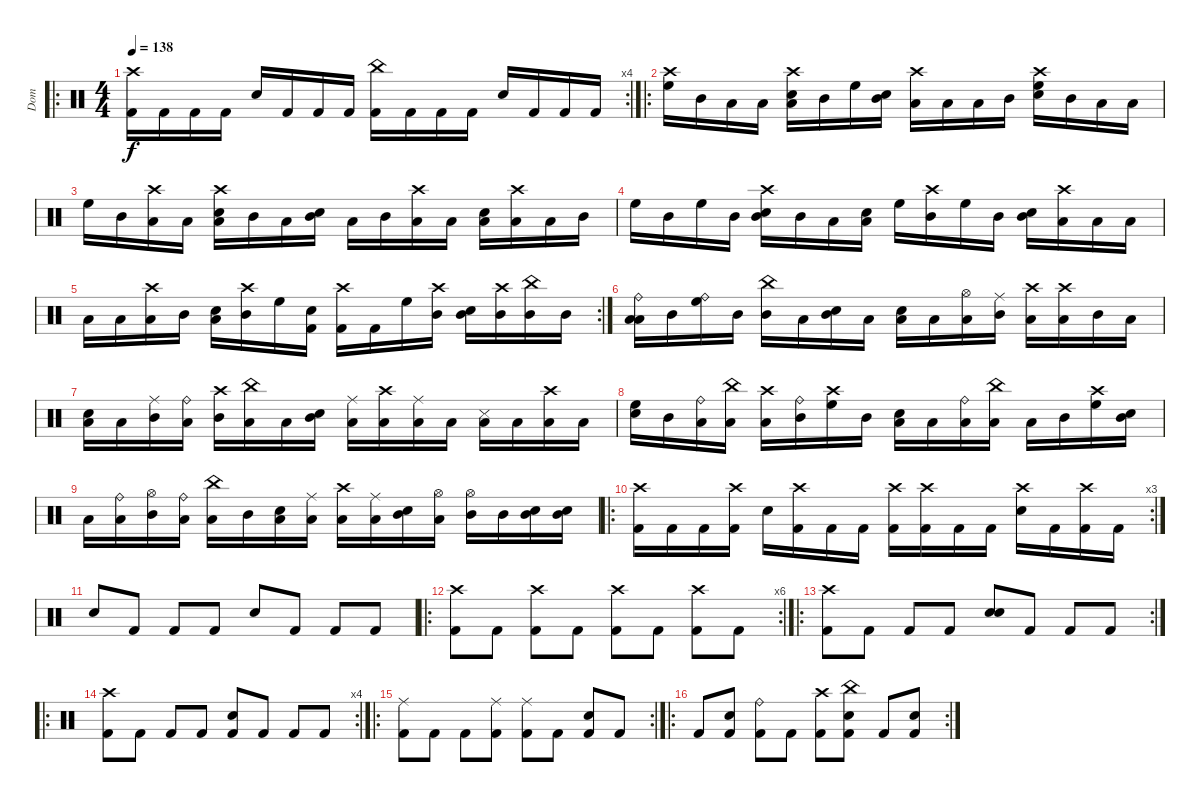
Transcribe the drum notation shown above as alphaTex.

\track ("Dom" "Dom") {instrument percussion}
\staff {score}
\articulation defaults
\ro
\rc 4
\ts (4 4)
\tempo 138
\clef neutral
\ks c
("Crash high (hit)" "Kick (hit) 2").16{dy f} "Kick (hit) 2".16 "Kick (hit) 2".16 "Kick (hit) 2".16 "Snare (hit) 2".16 "Kick (hit) 2".16 "Kick (hit) 2".16 "Kick (hit) 2".16 ("China (hit)" "Kick (hit) 2").16 "Kick (hit) 2".16 "Kick (hit) 2".16 "Kick (hit) 2".16 "Snare (hit) 2".16 "Kick (hit) 2".16 "Kick (hit) 2".16 "Kick (hit) 2".16 |
\ro
("Crash high (hit)" "High Floor Tom (hit)").16 "Mid Tom (hit)".16 "Low Tom (hit)".16 "Low Floor Tom (hit)".16 ("Crash high (hit)" "Snare (hit) 2" "Low Tom (hit)").16 "Mid Tom (hit)".16 "High Floor Tom (hit)".16 ("Snare (hit) 2" "Mid Tom (hit)").16 ("Crash high (hit)" "Low Tom (hit)").16 "Low Floor Tom (hit)".16 "Low Tom (hit)".16 "Mid Tom (hit)".16 ("Crash high (hit)" "Snare (hit) 2" "High Floor Tom (hit)").16 "Mid Tom (hit)".16 "Low Tom (hit)".16 "Low Floor Tom (hit)".16 |
"High Floor Tom (hit)".16 "Mid Tom (hit)".16 ("Crash high (hit)" "Low Tom (hit)").16 "Low Floor Tom (hit)".16 ("Crash high (hit)" "Snare (hit) 2" "Low Tom (hit)").16 "Mid Tom (hit)".16 "Low Tom (hit)".16 ("Snare (hit) 2" "Mid Tom (hit)").16 "Low Tom (hit)".16 "Mid Tom (hit)".16 ("Crash high (hit)" "Low Tom (hit)").16 "Low Floor Tom (hit)".16 ("Snare (hit) 2" "Low Tom (hit)").16 ("Crash high (hit)" "Low Floor Tom (hit)").16 "Low Tom (hit)".16 "Mid Tom (hit)".16 |
"High Floor Tom (hit)".16 "Mid Tom (hit)".16 "High Floor Tom (hit)".16 "Mid Tom (hit)".16 ("Crash high (hit)" "Snare (hit) 2" "Mid Tom (hit)").16 "Mid Tom (hit)".16 "Low Tom (hit)".16 ("Snare (hit) 2" "Low Tom (hit)").16 "High Floor Tom (hit)".16 ("Crash high (hit)" "Mid Tom (hit)").16 "High Floor Tom (hit)".16 "Mid Tom (hit)".16 ("Snare (hit) 2" "Mid Tom (hit)").16 ("Crash high (hit)" "Low Tom (hit)").16 "Low Tom (hit)".16 "Low Tom (hit)".16 |
\rc 2 "Low Tom (hit)".16 "Low Tom (hit)".16
("Crash high (hit)" "Low Tom (hit)").16 "Mid Tom (hit)".16 ("Snare (hit) 2" "Low Tom (hit)").16 ("Crash high (hit)" "Mid Tom (hit)").16 "High Floor Tom (hit)".16 ("Snare (hit) 2" "Kick (hit) 2").16 ("Crash high (hit)" "Kick (hit) 2").16 "Kick (hit) 2".16 "High Floor Tom (hit)".16 ("Crash high (hit)" "Mid Tom (hit)").16 ("Snare (hit) 2" "Mid Tom (hit)").16 ("Crash high (hit)" "Mid Tom (hit)").16 ("China (hit)" "Mid Tom (hit)").16 "Mid Tom (hit)".16 |
("Ride (bell)" "Low Tom (hit)" "Low Floor Tom (hit)").16 "Mid Tom (hit)".16 ("Ride (bell)" "High Floor Tom (hit)").16 "Mid Tom (hit)".16 ("China (hit)" "Mid Tom (hit)").16 "Low Tom (hit)".16 ("Snare (hit) 2" "Mid Tom (hit)").16 "Low Tom (hit)".16 ("Snare (hit) 2" "Low Tom (hit)").16 "Low Tom (hit)".16 ("Hi-Hat (open)" "Low Tom (hit)").16 ("Ride (middle)" "Mid Tom (hit)").16 ("Crash high (hit)" "Low Tom (hit)").16 ("Crash high (hit)" "Low Tom (hit)").16 "Mid Tom (hit)".16 "Low Tom (hit)".16 |
("Snare (hit) 2" "Low Tom (hit)").16 "Low Tom (hit)".16 ("Ride (middle)" "Mid Tom (hit)").16 ("Ride (bell)" "Low Floor Tom (hit)").16 ("Crash high (hit)" "Mid Tom (hit)").16 ("China (hit)" "Low Tom (hit)").16 "Low Tom (hit)".16 ("Snare (hit) 2" "Mid Tom (hit)").16 ("Ride (middle)" "Low Floor Tom (hit)").16 ("Crash high (hit)" "Low Tom (hit)").16 ("Ride (middle)" "Low Floor Tom (hit)").16 "Low Tom (hit)".16 ("Snare (side stick) 3" "Low Tom (hit)").16 "Low Floor Tom (hit)".16 ("Crash high (hit)" "Low Tom (hit)").16 "Low Floor Tom (hit)".16 |
("Snare (hit) 2" "High Floor Tom (hit)").16 "Mid Tom (hit)".16 ("Ride (bell)" "Low Tom (hit)").16 ("China (hit)" "Low Floor Tom (hit)").16 ("Crash high (hit)" "Low Tom (hit)").16 ("Ride (bell)" "Mid Tom (hit)").16 ("Crash high (hit)" "High Floor Tom (hit)").16 "Mid Tom (hit)".16 ("Snare (hit) 2" "Low Tom (hit)").16 "Low Floor Tom (hit)".16 ("Ride (bell)" "Low Tom (hit)").16 ("China (hit)" "Low Floor Tom (hit)").16 "Low Tom (hit)".16 "Mid Tom (hit)".16 ("Crash high (hit)" "High Floor Tom (hit)").16 ("Snare (hit) 2" "Mid Tom (hit)").16 |
"Low Tom (hit)".16 ("Ride (bell)" "Low Tom (hit)").16 ("Hi-Hat (open)" "Mid Tom (hit)").16 ("Ride (bell)" "Low Tom (hit)").16 ("China (hit)" "Low Tom (hit)").16 "Mid Tom (hit)".16 ("Snare (hit) 2" "Low Tom (hit)").16 ("Ride (middle)" "Low Tom (hit)").16 ("Crash high (hit)" "Low Tom (hit)").16 ("Ride (middle)" "Low Tom (hit)").16 ("Snare (hit) 2" "Mid Tom (hit)").16 ("Hi-Hat (open)" "Low Tom (hit)").16 ("Hi-Hat (open)" "Mid Tom (hit)").16 "Mid Tom (hit)".16 ("Snare (hit) 2" "Mid Tom (hit)").16 ("Snare (hit) 2" "Mid Tom (hit)").16 |
\ro
\rc 3
("Crash high (hit)" "Kick (hit) 2").16 "Kick (hit) 2".16 "Kick (hit) 2".16 ("Crash high (hit)" "Kick (hit) 2").16 "Snare (hit) 2".16 ("Crash high (hit)" "Kick (hit) 2").16 "Kick (hit) 2".16 "Kick (hit) 2".16 ("Crash high (hit)" "Kick (hit) 2").16 ("Crash high (hit)" "Kick (hit) 2").16 "Kick (hit) 2".16 "Kick (hit) 2".16 ("Crash high (hit)" "Snare (hit) 2").16 "Kick (hit) 2".16 ("Crash high (hit)" "Kick (hit) 2").16 "Kick (hit) 2".16 |
"Snare (hit) 2".8 "Kick (hit) 2".8 "Kick (hit) 2".8 "Kick (hit) 2".8 "Snare (hit) 2".8 "Kick (hit) 2".8 "Kick (hit) 2".8 "Kick (hit) 2".8 |
\ro
\rc 6
("Crash high (hit)" "Kick (hit) 2").8 "Kick (hit) 2".8 ("Crash high (hit)" "Kick (hit) 2").8 "Kick (hit) 2".8 ("Crash high (hit)" "Kick (hit) 2").8 "Kick (hit) 2".8 ("Crash high (hit)" "Kick (hit) 2").8 "Kick (hit) 2".8 |
\ro
\rc 2
("Crash high (hit)" "Kick (hit) 2").8 "Kick (hit) 2".8 "Kick (hit) 2".8 "Kick (hit) 2".8 ("Snare (hit) 2" "Snare (hit) 2").8 "Kick (hit) 2".8 "Kick (hit) 2".8 "Kick (hit) 2".8 |
\ro
\rc 4
("Crash high (hit)" "Kick (hit) 2").8 "Kick (hit) 2".8 "Kick (hit) 2".8 "Kick (hit) 2".8 ("Snare (hit) 2" "Kick (hit) 2").8 "Kick (hit) 2".8 "Kick (hit) 2".8 "Kick (hit) 2".8 |
\ro
\rc 2
("Ride (middle)" "Kick (hit) 2").8 "Kick (hit) 2".8 "Kick (hit) 2".8 ("Ride (middle)" "Kick (hit) 2").8 ("Ride (middle)" "Kick (hit) 2").8 "Kick (hit) 2".8 ("Snare (hit) 2" "Kick (hit) 2").8 "Kick (hit) 2".8 |
\ro
\rc 2 "Kick (hit) 2".8
("Snare (hit) 2" "Kick (hit) 2").8 ("Ride (bell)" "Kick (hit) 2").8 "Kick (hit) 2".8 ("Crash high (hit)" "Kick (hit) 2").8 ("Snare (hit) 2" "China (hit)" "Kick (hit) 2").8 "Kick (hit) 2".8 ("Snare (hit) 2" "Kick (hit) 2").8
